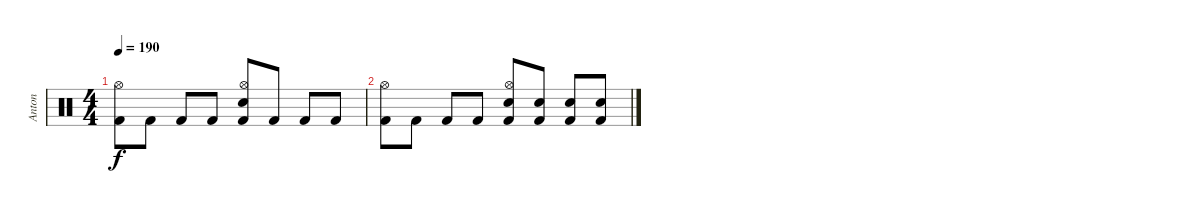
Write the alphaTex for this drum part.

\track ("Anton" "Anton") {instrument percussion}
\staff {score}
\articulation defaults
\ts (4 4)
\tempo 190
\clef neutral
\ks c
("Kick (hit) 2" "Hi-Hat (open)").8{dy f} "Kick (hit) 2".8 "Kick (hit) 2".8 "Kick (hit) 2".8 ("Kick (hit) 2" "Snare (hit) 2" "Hi-Hat (open)").8 "Kick (hit) 2".8 "Kick (hit) 2".8 "Kick (hit) 2".8 |
("Kick (hit) 2" "Hi-Hat (open)").8 "Kick (hit) 2".8 "Kick (hit) 2".8 "Kick (hit) 2".8 ("Kick (hit) 2" "Snare (hit) 2" "Hi-Hat (open)").8 ("Kick (hit) 2" "Snare (hit) 2").8 ("Kick (hit) 2" "Snare (hit) 2").8 ("Kick (hit) 2" "Snare (hit) 2").8
